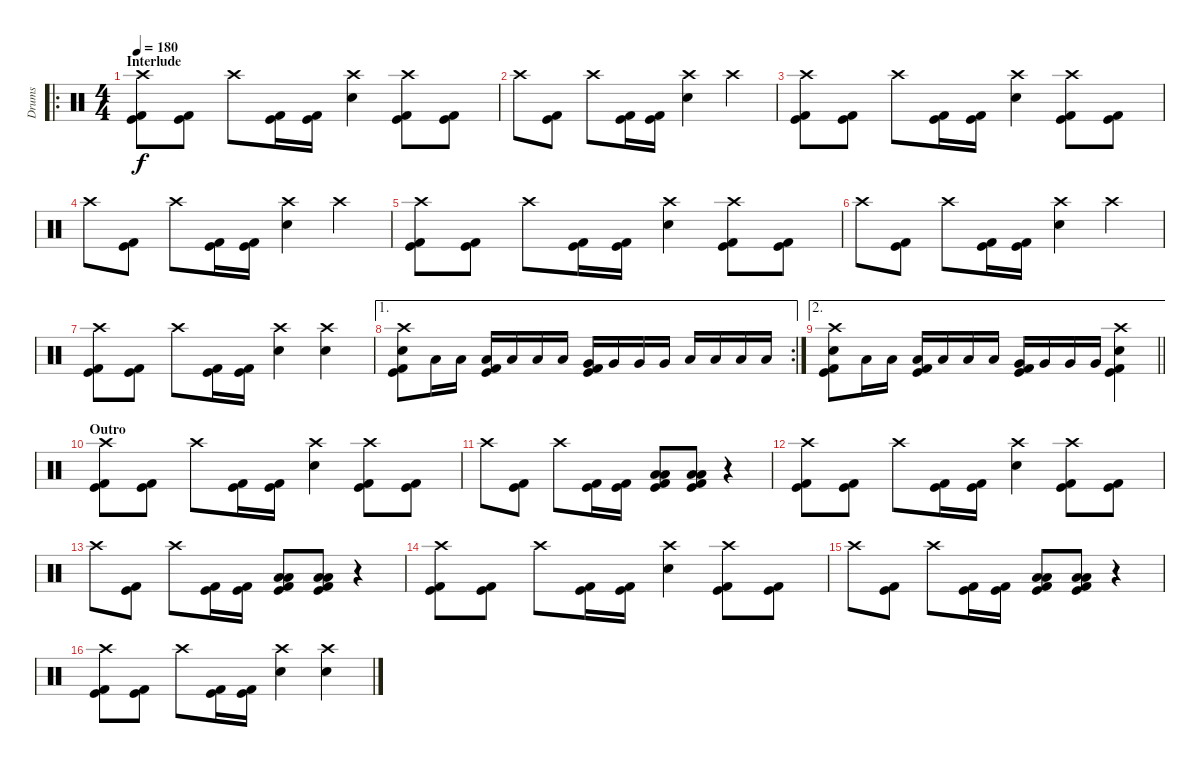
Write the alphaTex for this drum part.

\track ("Drums" "Drums") {instrument percussion}
\staff {score}
\articulation defaults
\ro
\ts (4 4)
\section ("" "Interlude")
\tempo 180
\clef neutral
\ks c
("Crash high (hit)" "Kick (hit)" "Kick (hit) 2").8{dy f} ("Kick (hit)" "Kick (hit) 2").8 "Crash high (hit)".8 ("Kick (hit)" "Kick (hit) 2").16 ("Kick (hit)" "Kick (hit) 2").16 ("Crash high (hit)" "Electric Snare (hit)").4 ("Crash high (hit)" "Kick (hit)" "Kick (hit) 2").8 ("Kick (hit)" "Kick (hit) 2").8 |
"Crash high (hit)".8 ("Kick (hit)" "Kick (hit) 2").8 "Crash high (hit)".8 ("Kick (hit)" "Kick (hit) 2").16 ("Kick (hit)" "Kick (hit) 2").16 ("Crash high (hit)" "Electric Snare (hit)").4 "Crash high (hit)".4 |
("Crash high (hit)" "Kick (hit)" "Kick (hit) 2").8 ("Kick (hit)" "Kick (hit) 2").8 "Crash high (hit)".8 ("Kick (hit)" "Kick (hit) 2").16 ("Kick (hit)" "Kick (hit) 2").16 ("Crash high (hit)" "Electric Snare (hit)").4 ("Crash high (hit)" "Kick (hit)" "Kick (hit) 2").8 ("Kick (hit)" "Kick (hit) 2").8 |
"Crash high (hit)".8 ("Kick (hit)" "Kick (hit) 2").8 "Crash high (hit)".8 ("Kick (hit)" "Kick (hit) 2").16 ("Kick (hit)" "Kick (hit) 2").16 ("Crash high (hit)" "Electric Snare (hit)").4 "Crash high (hit)".4 |
("Crash high (hit)" "Kick (hit)" "Kick (hit) 2").8 ("Kick (hit)" "Kick (hit) 2").8 "Crash high (hit)".8 ("Kick (hit)" "Kick (hit) 2").16 ("Kick (hit)" "Kick (hit) 2").16 ("Crash high (hit)" "Electric Snare (hit)").4 ("Crash high (hit)" "Kick (hit)" "Kick (hit) 2").8 ("Kick (hit)" "Kick (hit) 2").8 |
"Crash high (hit)".8 ("Kick (hit)" "Kick (hit) 2").8 "Crash high (hit)".8 ("Kick (hit)" "Kick (hit) 2").16 ("Kick (hit)" "Kick (hit) 2").16 ("Crash high (hit)" "Electric Snare (hit)").4 "Crash high (hit)".4 |
("Crash high (hit)" "Kick (hit)" "Kick (hit) 2").8 ("Kick (hit)" "Kick (hit) 2").8 "Crash high (hit)".8 ("Kick (hit)" "Kick (hit) 2").16 ("Kick (hit)" "Kick (hit) 2").16 ("Crash high (hit)" "Electric Snare (hit)").4 ("Crash high (hit)" "Electric Snare (hit)").4 |
\ae 1
\rc 2
("Crash high (hit)" "Electric Snare (hit)" "Kick (hit)" "Kick (hit) 2").8 "Low Tom (hit)".16 "Low Tom (hit)".16 ("Low Tom (hit)" "Kick (hit)" "Kick (hit) 2").16 "Low Tom (hit)".16 "Low Tom (hit)".16 "Low Tom (hit)".16 ("Very Low Tom (hit)" "Kick (hit)" "Kick (hit) 2").16 "Very Low Tom (hit)".16 "Very Low Tom (hit)".16 "Very Low Tom (hit)".16 "Low Floor Tom (hit)".16 "Low Floor Tom (hit)".16 "Low Floor Tom (hit)".16 "Low Floor Tom (hit)".16 |
\ae 2
\barLineRight lightlight
("Crash high (hit)" "Electric Snare (hit)" "Kick (hit)" "Kick (hit) 2").8 "Low Tom (hit)".16 "Low Tom (hit)".16 ("Low Tom (hit)" "Kick (hit)" "Kick (hit) 2").16 "Low Tom (hit)".16 "Low Tom (hit)".16 "Low Tom (hit)".16 ("Very Low Tom (hit)" "Kick (hit)" "Kick (hit) 2").16 "Very Low Tom (hit)".16 "Very Low Tom (hit)".16 "Very Low Tom (hit)".16 ("Crash high (hit)" "Electric Snare (hit)" "Kick (hit)" "Kick (hit) 2").4 |
\section ("" "Outro")
("Crash high (hit)" "Kick (hit)" "Kick (hit) 2").8 ("Kick (hit)" "Kick (hit) 2").8 "Crash high (hit)".8 ("Kick (hit)" "Kick (hit) 2").16 ("Kick (hit)" "Kick (hit) 2").16 ("Crash high (hit)" "Electric Snare (hit)").4 ("Crash high (hit)" "Kick (hit)" "Kick (hit) 2").8 ("Kick (hit)" "Kick (hit) 2").8 |
"Crash high (hit)".8 ("Kick (hit)" "Kick (hit) 2").8 "Crash high (hit)".8 ("Kick (hit)" "Kick (hit) 2").16 ("Kick (hit)" "Kick (hit) 2").16 ("Low Floor Tom (hit)" "Low Tom (hit)" "Kick (hit)" "Kick (hit) 2").8 ("Low Floor Tom (hit)" "Low Tom (hit)" "Kick (hit)" "Kick (hit) 2").8 r.4 |
("Crash high (hit)" "Kick (hit)" "Kick (hit) 2").8 ("Kick (hit)" "Kick (hit) 2").8 "Crash high (hit)".8 ("Kick (hit)" "Kick (hit) 2").16 ("Kick (hit)" "Kick (hit) 2").16 ("Crash high (hit)" "Electric Snare (hit)").4 ("Crash high (hit)" "Kick (hit)" "Kick (hit) 2").8 ("Kick (hit)" "Kick (hit) 2").8 |
"Crash high (hit)".8 ("Kick (hit)" "Kick (hit) 2").8 "Crash high (hit)".8 ("Kick (hit)" "Kick (hit) 2").16 ("Kick (hit)" "Kick (hit) 2").16 ("Low Floor Tom (hit)" "Low Tom (hit)" "Kick (hit)" "Kick (hit) 2").8 ("Low Floor Tom (hit)" "Low Tom (hit)" "Kick (hit)" "Kick (hit) 2").8 r.4 |
("Crash high (hit)" "Kick (hit)" "Kick (hit) 2").8 ("Kick (hit)" "Kick (hit) 2").8 "Crash high (hit)".8 ("Kick (hit)" "Kick (hit) 2").16 ("Kick (hit)" "Kick (hit) 2").16 ("Crash high (hit)" "Electric Snare (hit)").4 ("Crash high (hit)" "Kick (hit)" "Kick (hit) 2").8 ("Kick (hit)" "Kick (hit) 2").8 |
"Crash high (hit)".8 ("Kick (hit)" "Kick (hit) 2").8 "Crash high (hit)".8 ("Kick (hit)" "Kick (hit) 2").16 ("Kick (hit)" "Kick (hit) 2").16 ("Low Floor Tom (hit)" "Low Tom (hit)" "Kick (hit)" "Kick (hit) 2").8 ("Low Floor Tom (hit)" "Low Tom (hit)" "Kick (hit)" "Kick (hit) 2").8 r.4 |
("Crash high (hit)" "Kick (hit)" "Kick (hit) 2").8 ("Kick (hit)" "Kick (hit) 2").8 "Crash high (hit)".8 ("Kick (hit)" "Kick (hit) 2").16 ("Kick (hit)" "Kick (hit) 2").16 ("Crash high (hit)" "Electric Snare (hit)").4 ("Crash high (hit)" "Electric Snare (hit)").4
